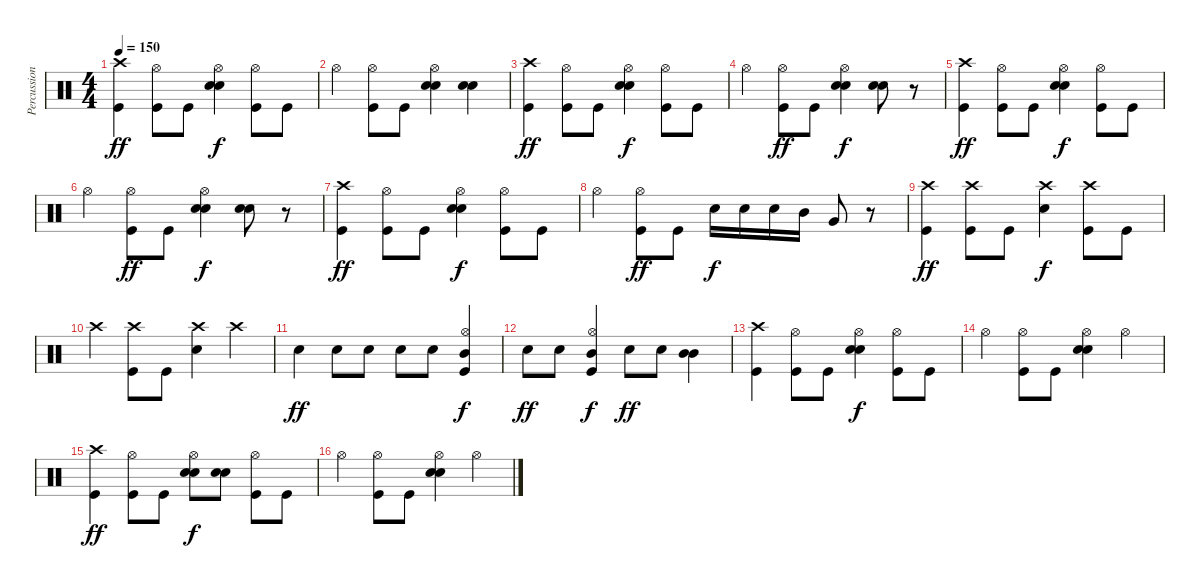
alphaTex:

\track ("Percussion" "Percussion") {instrument percussion}
\staff {score}
\articulation defaults
\ts (4 4)
\tempo 150
\clef neutral
\ks c
("Crash high (hit)" "Kick (hit)").4{dy ff} ("Hi-Hat (open)" "Kick (hit)").8 "Kick (hit)".8 ("Hi-Hat (open)" "Snare (hit) 2" "Snare (hit) 2").4{dy f} ("Hi-Hat (open)" "Kick (hit)").8 "Kick (hit)".8 |
"Hi-Hat (open)".4 ("Hi-Hat (open)" "Kick (hit)").8 "Kick (hit)".8 ("Hi-Hat (open)" "Snare (hit) 2" "Snare (hit) 2").4 ("Snare (hit) 2" "Snare (hit) 2").4 |
("Crash high (hit)" "Kick (hit)").4{dy ff} ("Hi-Hat (open)" "Kick (hit)").8 "Kick (hit)".8 ("Hi-Hat (open)" "Snare (hit) 2" "Snare (hit) 2").4{dy f} ("Hi-Hat (open)" "Kick (hit)").8 "Kick (hit)".8 |
"Hi-Hat (open)".4 ("Hi-Hat (open)" "Kick (hit)").8{dy ff} "Kick (hit)".8 ("Hi-Hat (open)" "Snare (hit) 2" "Snare (hit) 2").4{dy f} ("Snare (hit) 2" "Snare (hit) 2").8 r.8 |
("Crash high (hit)" "Kick (hit)").4{dy ff} ("Hi-Hat (open)" "Kick (hit)").8 "Kick (hit)".8 ("Hi-Hat (open)" "Snare (hit) 2" "Snare (hit) 2").4{dy f} ("Hi-Hat (open)" "Kick (hit)").8 "Kick (hit)".8 |
"Hi-Hat (open)".4 ("Hi-Hat (open)" "Kick (hit)").8{dy ff} "Kick (hit)".8 ("Hi-Hat (open)" "Snare (hit) 2" "Snare (hit) 2").4{dy f} ("Snare (hit) 2" "Snare (hit) 2").8 r.8 |
("Crash high (hit)" "Kick (hit)").4{dy ff} ("Hi-Hat (open)" "Kick (hit)").8 "Kick (hit)".8 ("Hi-Hat (open)" "Snare (hit) 2" "Snare (hit) 2").4{dy f} ("Hi-Hat (open)" "Kick (hit)").8 "Kick (hit)".8 |
"Hi-Hat (open)".4 ("Hi-Hat (open)" "Kick (hit)").8{dy ff} "Kick (hit)".8 "Snare (hit) 2".16{dy f} "Snare (hit) 2".16 "Snare (hit) 2".16 "Mid Tom (hit)".16 "Very Low Tom (hit)".8 r.8 |
("Crash high (hit)" "Kick (hit)").4{dy ff} ("Crash high (hit)" "Kick (hit)").8 "Kick (hit)".8 ("Crash high (hit)" "Snare (hit) 2").4{dy f} ("Crash high (hit)" "Kick (hit)").8 "Kick (hit)".8 |
"Crash high (hit)".4 ("Crash high (hit)" "Kick (hit)").8 "Kick (hit)".8 ("Crash high (hit)" "Snare (hit) 2").4 "Crash high (hit)".4 |
"Snare (hit) 2".4{dy ff} "Snare (hit) 2".8 "Snare (hit) 2".8 "Snare (hit) 2".8 "Snare (hit) 2".8 ("Hi-Hat (open)" "Mid Tom (hit)" "Kick (hit)").4{dy f} |
"Snare (hit) 2".8{dy ff} "Snare (hit) 2".8 ("Hi-Hat (open)" "Mid Tom (hit)" "Kick (hit)").4{dy f} "Snare (hit) 2".8{dy ff} "Snare (hit) 2".8 ("Mid Tom (hit)" "Mid Tom (hit)").4 |
("Crash high (hit)" "Kick (hit)").4 ("Hi-Hat (open)" "Kick (hit)").8 "Kick (hit)".8 ("Hi-Hat (open)" "Snare (hit) 2" "Snare (hit) 2").4{dy f} ("Hi-Hat (open)" "Kick (hit)").8 "Kick (hit)".8 |
"Hi-Hat (open)".4 ("Hi-Hat (open)" "Kick (hit)").8 "Kick (hit)".8 ("Hi-Hat (open)" "Snare (hit) 2" "Snare (hit) 2").4 "Hi-Hat (open)".4 |
("Crash high (hit)" "Kick (hit)").4{dy ff} ("Hi-Hat (open)" "Kick (hit)").8 "Kick (hit)".8 ("Hi-Hat (open)" "Snare (hit) 2" "Snare (hit) 2").8{dy f} ("Snare (hit) 2" "Snare (hit) 2").8 ("Hi-Hat (open)" "Kick (hit)").8 "Kick (hit)".8 |
"Hi-Hat (open)".4 ("Hi-Hat (open)" "Kick (hit)").8 "Kick (hit)".8 ("Hi-Hat (open)" "Snare (hit) 2" "Snare (hit) 2").4 "Hi-Hat (open)".4
